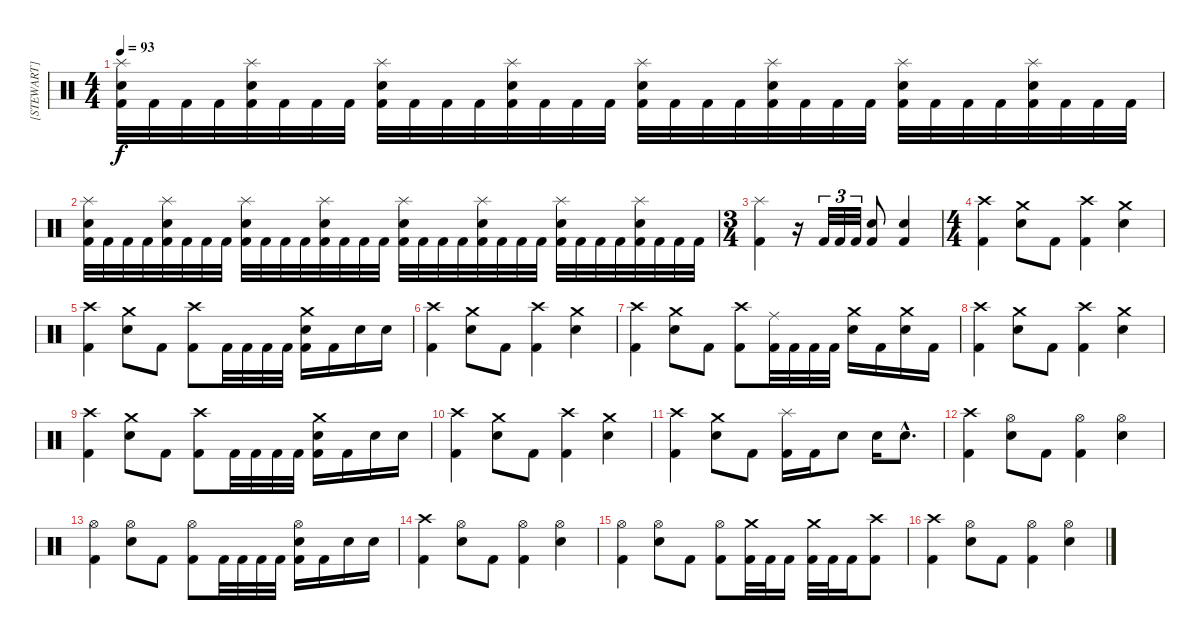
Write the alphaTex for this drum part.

\track ("[STEWART]" "[STEWART]") {instrument percussion}
\staff {score}
\articulation defaults
\ts (4 4)
\tempo 93
\clef neutral
\ks c
("Splash (hit)" "Electric Snare (hit)" "Kick (hit) 2").32{dy f} "Kick (hit) 2".32 "Kick (hit) 2".32 "Kick (hit) 2".32 ("Splash (hit)" "Electric Snare (hit)" "Kick (hit) 2").32 "Kick (hit) 2".32 "Kick (hit) 2".32 "Kick (hit) 2".32 ("Splash (hit)" "Electric Snare (hit)" "Kick (hit) 2").32 "Kick (hit) 2".32 "Kick (hit) 2".32 "Kick (hit) 2".32 ("Splash (hit)" "Electric Snare (hit)" "Kick (hit) 2").32 "Kick (hit) 2".32 "Kick (hit) 2".32 "Kick (hit) 2".32 ("Splash (hit)" "Electric Snare (hit)" "Kick (hit) 2").32 "Kick (hit) 2".32 "Kick (hit) 2".32 "Kick (hit) 2".32 ("Splash (hit)" "Electric Snare (hit)" "Kick (hit) 2").32 "Kick (hit) 2".32 "Kick (hit) 2".32 "Kick (hit) 2".32 ("Splash (hit)" "Electric Snare (hit)" "Kick (hit) 2").32 "Kick (hit) 2".32 "Kick (hit) 2".32 "Kick (hit) 2".32 ("Splash (hit)" "Electric Snare (hit)" "Kick (hit) 2").32 "Kick (hit) 2".32 "Kick (hit) 2".32 "Kick (hit) 2".32 |
("Splash (hit)" "Electric Snare (hit)" "Kick (hit) 2").32 "Kick (hit) 2".32 "Kick (hit) 2".32 "Kick (hit) 2".32 ("Splash (hit)" "Electric Snare (hit)" "Kick (hit) 2").32 "Kick (hit) 2".32 "Kick (hit) 2".32 "Kick (hit) 2".32 ("Splash (hit)" "Electric Snare (hit)" "Kick (hit) 2").32 "Kick (hit) 2".32 "Kick (hit) 2".32 "Kick (hit) 2".32 ("Splash (hit)" "Electric Snare (hit)" "Kick (hit) 2").32 "Kick (hit) 2".32 "Kick (hit) 2".32 "Kick (hit) 2".32 ("Splash (hit)" "Electric Snare (hit)" "Kick (hit) 2").32 "Kick (hit) 2".32 "Kick (hit) 2".32 "Kick (hit) 2".32 ("Splash (hit)" "Electric Snare (hit)" "Kick (hit) 2").32 "Kick (hit) 2".32 "Kick (hit) 2".32 "Kick (hit) 2".32 ("Splash (hit)" "Electric Snare (hit)" "Kick (hit) 2").32 "Kick (hit) 2".32 "Kick (hit) 2".32 "Kick (hit) 2".32 ("Splash (hit)" "Electric Snare (hit)" "Kick (hit) 2").32 "Kick (hit) 2".32 "Kick (hit) 2".32 "Kick (hit) 2".32 |
\ts (3 4)
("Splash (hit)" "Kick (hit) 2").4 r.16 "Kick (hit) 2".32{tu (3 2)} "Kick (hit) 2".32{tu (3 2)} "Kick (hit) 2".32{tu (3 2)} ("Electric Snare (hit)" "Kick (hit) 2").8 ("Electric Snare (hit)" "Kick (hit) 2").4 |
\ts (4 4)
("Crash high (hit)" "Kick (hit) 2").4 ("Crash medium (hit)" "Electric Snare (hit)").8 "Kick (hit) 2".8 ("Crash high (hit)" "Kick (hit) 2").4 ("Crash medium (hit)" "Electric Snare (hit)").4 |
("Crash high (hit)" "Kick (hit) 2").4 ("Crash medium (hit)" "Electric Snare (hit)").8 "Kick (hit) 2".8 ("Crash high (hit)" "Kick (hit) 2").8 "Kick (hit) 2".32 "Kick (hit) 2".32 "Kick (hit) 2".32 "Kick (hit) 2".32 ("Crash medium (hit)" "Electric Snare (hit)" "Kick (hit) 2").16 "Kick (hit) 2".16 "Electric Snare (hit)".16 "Electric Snare (hit)".16 |
("Crash high (hit)" "Kick (hit) 2").4 ("Crash medium (hit)" "Electric Snare (hit)").8 "Kick (hit) 2".8 ("Crash high (hit)" "Kick (hit) 2").4 ("Crash medium (hit)" "Electric Snare (hit)").4 |
("Crash high (hit)" "Kick (hit) 2").4 ("Crash medium (hit)" "Electric Snare (hit)").8 "Kick (hit) 2".8 ("Crash high (hit)" "Kick (hit) 2").8 ("Ride (middle)" "Kick (hit) 2").32 "Kick (hit) 2".32 "Kick (hit) 2".32 "Kick (hit) 2".32 ("Crash medium (hit)" "Electric Snare (hit)").16 "Kick (hit) 2".16 ("Crash medium (hit)" "Electric Snare (hit)").16 "Kick (hit) 2".16 |
("Crash high (hit)" "Kick (hit) 2").4 ("Crash medium (hit)" "Electric Snare (hit)").8 "Kick (hit) 2".8 ("Crash high (hit)" "Kick (hit) 2").4 ("Crash medium (hit)" "Electric Snare (hit)").4 |
("Crash high (hit)" "Kick (hit) 2").4 ("Crash medium (hit)" "Electric Snare (hit)").8 "Kick (hit) 2".8 ("Crash high (hit)" "Kick (hit) 2").8 "Kick (hit) 2".32 "Kick (hit) 2".32 "Kick (hit) 2".32 "Kick (hit) 2".32 ("Crash medium (hit)" "Electric Snare (hit)" "Kick (hit) 2").16 "Kick (hit) 2".16 "Electric Snare (hit)".16 "Electric Snare (hit)".16 |
("Crash high (hit)" "Kick (hit) 2").4 ("Crash medium (hit)" "Electric Snare (hit)").8 "Kick (hit) 2".8 ("Crash high (hit)" "Kick (hit) 2").4 ("Crash medium (hit)" "Electric Snare (hit)").4 |
("Crash high (hit)" "Kick (hit) 2").4 ("Crash medium (hit)" "Electric Snare (hit)").8 "Kick (hit) 2".8 ("Splash (hit)" "Kick (hit) 2").16 "Kick (hit) 2".16 "Electric Snare (hit)".8 "Electric Snare (hit)".16 "Electric Snare (hit)"{hac}.8{d} |
("Crash high (hit)" "Kick (hit) 2").4 ("Hi-Hat (open)" "Electric Snare (hit)").8 "Kick (hit) 2".8 ("Hi-Hat (open)" "Kick (hit) 2").4 ("Hi-Hat (open)" "Electric Snare (hit)").4 |
("Hi-Hat (open)" "Kick (hit) 2").4 ("Hi-Hat (open)" "Electric Snare (hit)").8 "Kick (hit) 2".8 ("Hi-Hat (open)" "Kick (hit) 2").8 "Kick (hit) 2".32 "Kick (hit) 2".32 "Kick (hit) 2".32 "Kick (hit) 2".32 ("Hi-Hat (open)" "Electric Snare (hit)" "Kick (hit) 2").16 "Kick (hit) 2".16 "Electric Snare (hit)".16 "Electric Snare (hit)".16 |
("Crash high (hit)" "Kick (hit) 2").4 ("Hi-Hat (open)" "Electric Snare (hit)").8 "Kick (hit) 2".8 ("Hi-Hat (open)" "Kick (hit) 2").4 ("Hi-Hat (open)" "Electric Snare (hit)").4 |
("Hi-Hat (open)" "Kick (hit) 2").4 ("Hi-Hat (open)" "Electric Snare (hit)").8 "Kick (hit) 2".8 ("Hi-Hat (open)" "Kick (hit) 2").8 ("Crash medium (hit)" "Kick (hit) 2").32 "Kick (hit) 2".32 "Kick (hit) 2".16 ("Crash medium (hit)" "Kick (hit) 2").32 "Kick (hit) 2".32 "Kick (hit) 2".16 ("Crash high (hit)" "Kick (hit) 2").8 |
("Crash high (hit)" "Kick (hit) 2").4 ("Hi-Hat (open)" "Electric Snare (hit)").8 "Kick (hit) 2".8 ("Hi-Hat (open)" "Kick (hit) 2").4 ("Hi-Hat (open)" "Electric Snare (hit)").4
